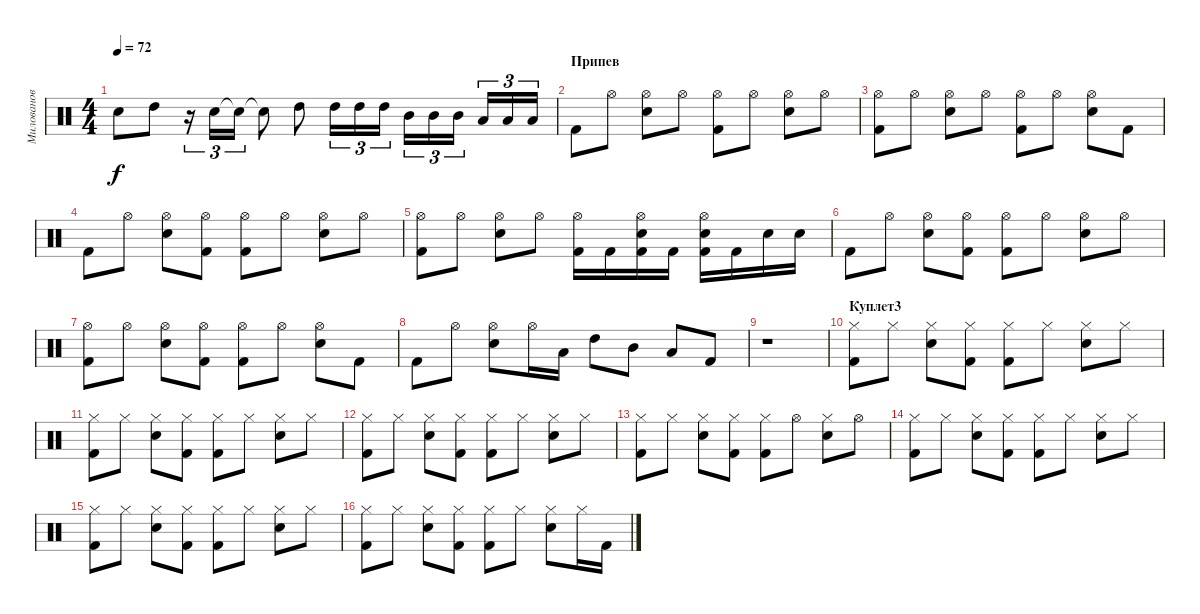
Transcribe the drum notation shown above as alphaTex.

\track ("Милованов" "Милованов") {instrument percussion}
\staff {score}
\articulation defaults
\ts (4 4)
\tempo 72
\clef neutral
\ks c "Electric Snare (hit)".8{dy f volume 16} "High Tom (hit)".8
r.16{tu (3 2)} "Electric Snare (hit)".16{tu (3 2)} "Snare (hit)"{t}.16{tu (3 2)} "Snare (hit)"{t}.8 "High Tom (hit)".8 "High Tom (hit)".16{tu (3 2)} "High Tom (hit)".16{tu (3 2)} "High Tom (hit)".16{tu (3 2)} "Mid Tom (hit)".16{tu (3 2)} "Mid Tom (hit)".16{tu (3 2)} "Mid Tom (hit)".16{tu (3 2)} "Low Tom (hit)".16{tu (3 2)} "Low Tom (hit)".16{tu (3 2)} "Low Tom (hit)".16{tu (3 2)} |
\section ("" "Припев")
"Kick (hit) 2".8 "Hi-Hat (open)".8 ("Hi-Hat (open)" "Electric Snare (hit)").8 "Hi-Hat (open)".8 ("Hi-Hat (open)" "Kick (hit) 2").8 "Hi-Hat (open)".8 ("Hi-Hat (open)" "Electric Snare (hit)").8 "Hi-Hat (open)".8 |
("Hi-Hat (open)" "Kick (hit) 2").8 "Hi-Hat (open)".8 ("Hi-Hat (open)" "Electric Snare (hit)").8 "Hi-Hat (open)".8 ("Hi-Hat (open)" "Kick (hit) 2").8 "Hi-Hat (open)".8 ("Hi-Hat (open)" "Electric Snare (hit)").8 "Kick (hit) 2".8 |
"Kick (hit) 2".8 "Hi-Hat (open)".8 ("Hi-Hat (open)" "Electric Snare (hit)").8 ("Hi-Hat (open)" "Kick (hit) 2").8 ("Hi-Hat (open)" "Kick (hit) 2").8 "Hi-Hat (open)".8 ("Hi-Hat (open)" "Electric Snare (hit)").8 "Hi-Hat (open)".8 |
("Hi-Hat (open)" "Kick (hit) 2").8 "Hi-Hat (open)".8 ("Hi-Hat (open)" "Electric Snare (hit)").8 "Hi-Hat (open)".8 ("Hi-Hat (open)" "Kick (hit) 2").16 "Kick (hit) 2".16 ("Hi-Hat (open)" "Electric Snare (hit)" "Kick (hit) 2").16 "Kick (hit) 2".16 ("Hi-Hat (open)" "Electric Snare (hit)" "Kick (hit) 2").16 "Kick (hit) 2".16 "Electric Snare (hit)".16 "Electric Snare (hit)".16 |
"Kick (hit) 2".8 "Hi-Hat (open)".8 ("Hi-Hat (open)" "Electric Snare (hit)").8 ("Hi-Hat (open)" "Kick (hit) 2").8 ("Hi-Hat (open)" "Kick (hit) 2").8 "Hi-Hat (open)".8 ("Hi-Hat (open)" "Electric Snare (hit)").8 "Hi-Hat (open)".8 |
("Hi-Hat (open)" "Kick (hit) 2").8 "Hi-Hat (open)".8 ("Hi-Hat (open)" "Electric Snare (hit)").8 ("Hi-Hat (open)" "Kick (hit) 2").8 ("Hi-Hat (open)" "Kick (hit) 2").8 "Hi-Hat (open)".8 ("Hi-Hat (open)" "Electric Snare (hit)").8 "Kick (hit) 2".8 |
"Kick (hit) 2".8 "Hi-Hat (open)".8 ("Hi-Hat (open)" "Electric Snare (hit)").8 "Hi-Hat (open)".16 "Low Tom (hit)".16 "High Tom (hit)".8 "Mid Tom (hit)".8 "Low Tom (hit)".8 "Kick (hit) 2".8 |
r.1 |
\section ("" "Куплет3")
("Hi-Hat (closed)" "Kick (hit) 2").8 "Hi-Hat (closed)".8 ("Hi-Hat (closed)" "Electric Snare (hit)").8 ("Hi-Hat (closed)" "Kick (hit) 2").8 ("Hi-Hat (closed)" "Kick (hit) 2").8 "Hi-Hat (closed)".8 ("Hi-Hat (closed)" "Electric Snare (hit)").8 "Hi-Hat (closed)".8 |
("Hi-Hat (closed)" "Kick (hit) 2").8 "Hi-Hat (closed)".8 ("Hi-Hat (closed)" "Electric Snare (hit)").8 ("Hi-Hat (closed)" "Kick (hit) 2").8 ("Hi-Hat (closed)" "Kick (hit) 2").8 "Hi-Hat (closed)".8 ("Hi-Hat (closed)" "Electric Snare (hit)").8 "Hi-Hat (closed)".8 |
("Hi-Hat (closed)" "Kick (hit) 2").8 "Hi-Hat (closed)".8 ("Hi-Hat (closed)" "Electric Snare (hit)").8 ("Hi-Hat (closed)" "Kick (hit) 2").8 ("Hi-Hat (closed)" "Kick (hit) 2").8 "Hi-Hat (closed)".8 ("Hi-Hat (closed)" "Electric Snare (hit)").8 "Hi-Hat (closed)".8 |
("Hi-Hat (closed)" "Kick (hit) 2").8 "Hi-Hat (closed)".8 ("Hi-Hat (closed)" "Electric Snare (hit)").8 ("Hi-Hat (closed)" "Kick (hit) 2").8 ("Hi-Hat (closed)" "Kick (hit) 2").8 "Hi-Hat (open)".8 ("Hi-Hat (closed)" "Electric Snare (hit)").8 "Hi-Hat (open)".8 |
("Hi-Hat (closed)" "Kick (hit) 2").8 "Hi-Hat (closed)".8 ("Hi-Hat (closed)" "Electric Snare (hit)").8 ("Hi-Hat (closed)" "Kick (hit) 2").8 ("Hi-Hat (closed)" "Kick (hit) 2").8 "Hi-Hat (closed)".8 ("Hi-Hat (closed)" "Electric Snare (hit)").8 "Hi-Hat (closed)".8 |
("Hi-Hat (closed)" "Kick (hit) 2").8 "Hi-Hat (closed)".8 ("Hi-Hat (closed)" "Electric Snare (hit)").8 ("Hi-Hat (closed)" "Kick (hit) 2").8 ("Hi-Hat (closed)" "Kick (hit) 2").8 "Hi-Hat (closed)".8 ("Hi-Hat (closed)" "Electric Snare (hit)").8 "Hi-Hat (closed)".8 |
("Hi-Hat (closed)" "Kick (hit) 2").8 "Hi-Hat (closed)".8 ("Hi-Hat (closed)" "Electric Snare (hit)").8 ("Hi-Hat (closed)" "Kick (hit) 2").8 ("Hi-Hat (closed)" "Kick (hit) 2").8 "Hi-Hat (closed)".8 ("Hi-Hat (closed)" "Electric Snare (hit)").8 "Hi-Hat (closed)".16 "Kick (hit) 2".16
